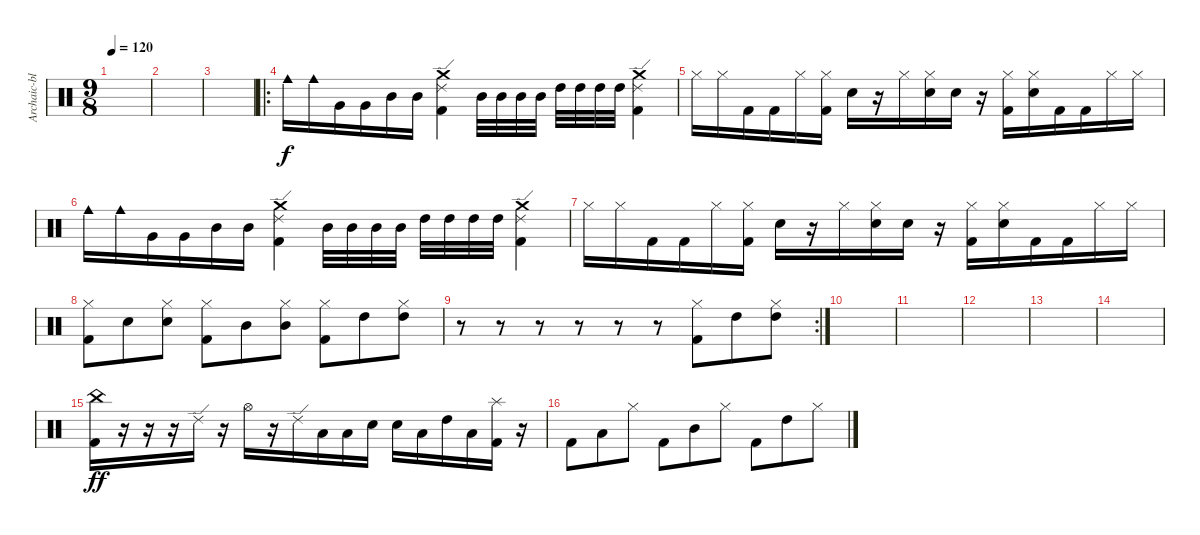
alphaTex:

\track ("Archaic-blasting fellow" "Archaic-bl") {instrument percussion}
\staff {score}
\articulation defaults
\ts (9 8)
\tempo 120
\clef neutral
\ks c
|
|
|
\ro "Cowbell medium (hit)".16 "Cowbell medium (hit)".16 "Very Low Tom (hit)".16 "Very Low Tom (hit)".16 "Mid Tom (hit)".16 "Mid Tom (hit)".16
("Kick (hit) 2" "Ride (edge) 2" "Crash medium (hit)").4 "Mid Tom (hit)".32 "Mid Tom (hit)".32 "Mid Tom (hit)".32 "Mid Tom (hit)".32 "High Tom (hit)".32 "High Tom (hit)".32 "High Tom (hit)".32 "High Tom (hit)".32 ("Kick (hit) 2" "Ride (edge) 2" "Crash medium (hit)").4 |
"Hi-Hat (closed)".16 "Hi-Hat (closed)".16 "Kick (hit) 2".16 "Kick (hit) 2".16 "Hi-Hat (closed)".16 ("Kick (hit) 2" "Hi-Hat (closed)").16 "Snare (hit) 2".16 r.16 "Hi-Hat (closed)".16 ("Snare (hit) 2" "Hi-Hat (closed)").16 "Snare (hit) 2".16 r.16 ("Kick (hit) 2" "Hi-Hat (closed)").16 ("Snare (hit) 2" "Hi-Hat (closed)").16 "Kick (hit) 2".16 "Kick (hit) 2".16 "Hi-Hat (closed)".16 "Hi-Hat (closed)".16 |
"Cowbell medium (hit)".16 "Cowbell medium (hit)".16 "Very Low Tom (hit)".16 "Very Low Tom (hit)".16 "Mid Tom (hit)".16 "Mid Tom (hit)".16 ("Kick (hit) 2" "Ride (edge) 2" "Crash medium (hit)").4 "Mid Tom (hit)".32 "Mid Tom (hit)".32 "Mid Tom (hit)".32 "Mid Tom (hit)".32 "High Tom (hit)".32 "High Tom (hit)".32 "High Tom (hit)".32 "High Tom (hit)".32 ("Kick (hit) 2" "Ride (edge) 2" "Crash medium (hit)").4 |
"Hi-Hat (closed)".16 "Hi-Hat (closed)".16 "Kick (hit) 2".16 "Kick (hit) 2".16 "Hi-Hat (closed)".16 ("Kick (hit) 2" "Hi-Hat (closed)").16 "Snare (hit) 2".16 r.16 "Hi-Hat (closed)".16 ("Snare (hit) 2" "Hi-Hat (closed)").16 "Snare (hit) 2".16 r.16 ("Kick (hit) 2" "Hi-Hat (closed)").16 ("Snare (hit) 2" "Hi-Hat (closed)").16 "Kick (hit) 2".16 "Kick (hit) 2".16 "Hi-Hat (closed)".16 "Hi-Hat (closed)".16 |
("Hi-Hat (closed)" "Kick (hit) 2").8 "Snare (hit) 2".8 ("Hi-Hat (closed)" "Snare (hit) 2").8 ("Hi-Hat (closed)" "Kick (hit) 2").8 "Mid Tom (hit)".8 ("Hi-Hat (closed)" "Mid Tom (hit)").8 ("Hi-Hat (closed)" "Kick (hit) 2").8 "High Tom (hit)".8 ("Hi-Hat (closed)" "High Tom (hit)").8 |
\rc 2
r.8 r.8 r.8 r.8 r.8 r.8 ("Hi-Hat (closed)" "Kick (hit) 2").8 "High Tom (hit)".8 ("Hi-Hat (closed)" "High Tom (hit)").8 |
|
|
|
|
|
("China (hit)" "Kick (hit) 2").16{dy ff} r.16 r.16 r.16 "Ride (edge) 2".16 r.16 "Hi-Hat (open)".16 r.16 "Ride (edge) 2".16 "Low Tom (hit)".16 "Low Tom (hit)".16 "Snare (hit) 2".16 "Snare (hit) 2".16 "Low Tom (hit)".16 "High Tom (hit)".16 "Low Tom (hit)".16 ("Kick (hit) 2" "Splash (hit)").16 r.16 |
"Kick (hit) 2".8 "Low Tom (hit)".8 "Hi-Hat (closed)".8 "Kick (hit) 2".8 "Mid Tom (hit)".8 "Hi-Hat (closed)".8 "Kick (hit) 2".8 "High Tom (hit)".8 "Hi-Hat (closed)".8
